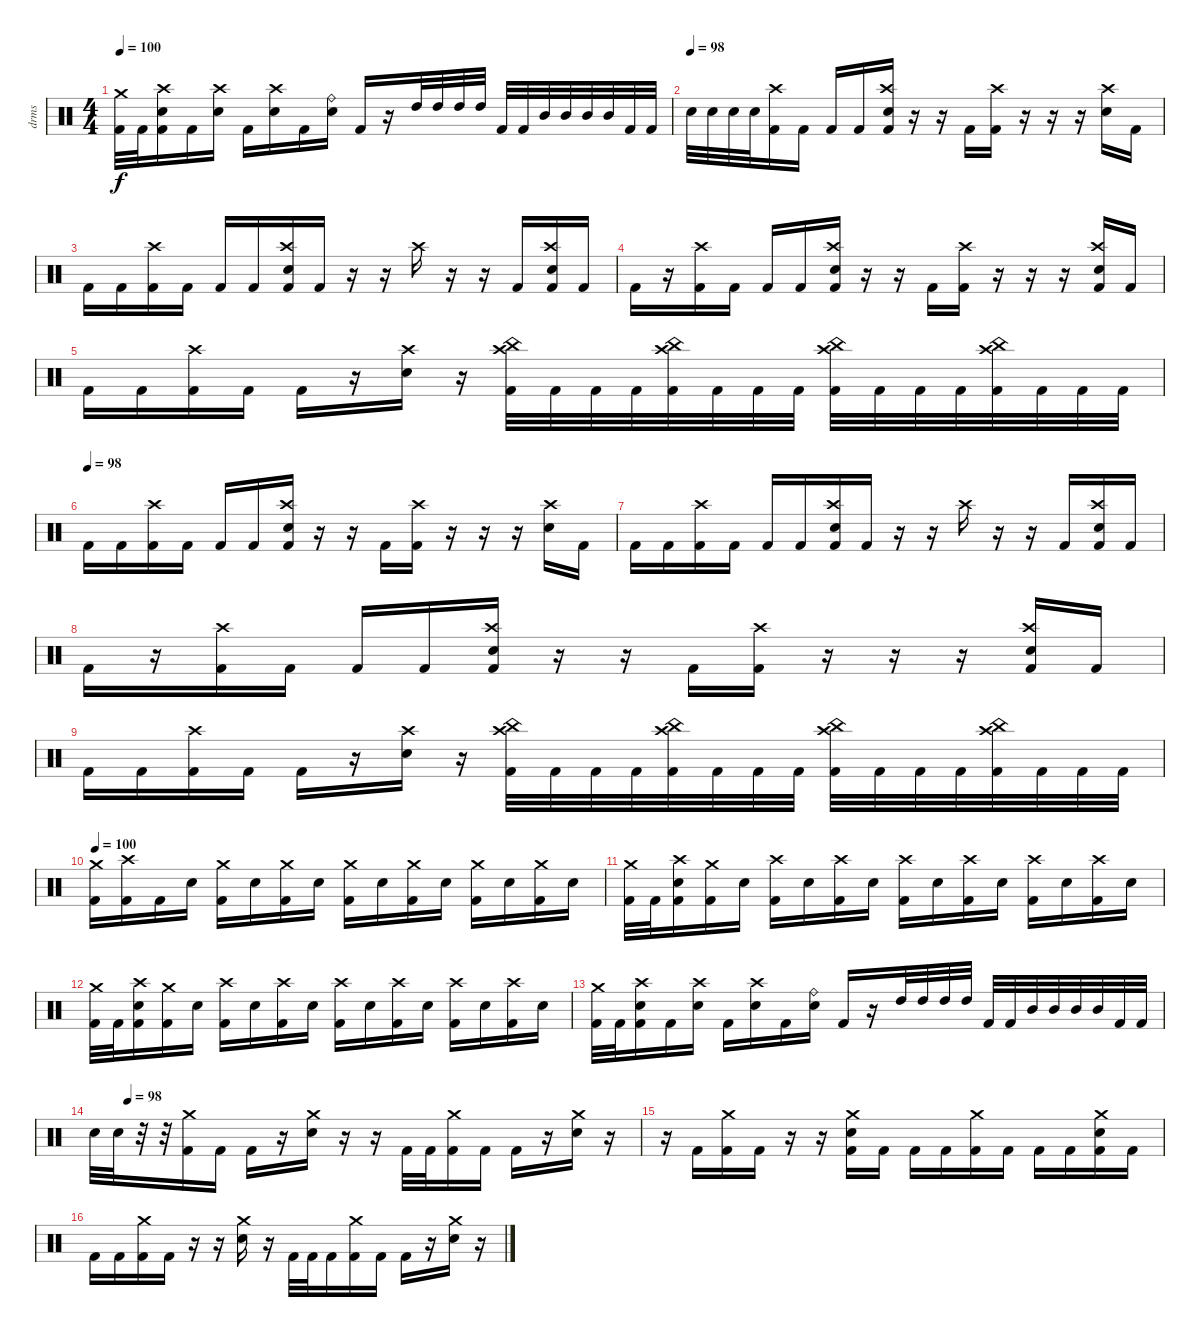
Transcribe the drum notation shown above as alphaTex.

\track ("drms" "drms") {instrument percussion}
\staff {score}
\articulation defaults
\ts (4 4)
\tempo 100
\clef neutral
\ks c
("Crash medium (hit)" "Kick (hit) 2").32{dy f} "Kick (hit) 2".32 ("Crash high (hit)" "Electric Snare (hit)" "Kick (hit) 2").16 "Kick (hit) 2".16 ("Crash high (hit)" "Electric Snare (hit)").16 "Kick (hit) 2".16 ("Crash high (hit)" "Electric Snare (hit)").16 "Kick (hit) 2".16 ("Ride (bell)" "Electric Snare (hit)").16 "Kick (hit) 2".16 r.16 "High Tom (hit)".32 "High Tom (hit)".32 "High Tom (hit)".32 "High Tom (hit)".32 "Kick (hit) 2".32 "Kick (hit) 2".32 "Mid Tom (hit)".32 "Mid Tom (hit)".32 "Mid Tom (hit)".32 "Mid Tom (hit)".32 "Kick (hit) 2".32 "Kick (hit) 2".32 |
\tempo (98)
"Electric Snare (hit)".32 "Electric Snare (hit)".32 "Electric Snare (hit)".32 "Electric Snare (hit)".32 ("Crash high (hit)" "Kick (hit) 2").16 "Kick (hit) 2".16 "Kick (hit) 2".16 "Kick (hit) 2".16 ("Crash high (hit)" "Electric Snare (hit)" "Kick (hit) 2").16 r.16 r.16 "Kick (hit) 2".16 ("Crash high (hit)" "Kick (hit) 2").16 r.16 r.16 r.16 ("Crash high (hit)" "Electric Snare (hit)").16 "Kick (hit) 2".16 |
"Kick (hit) 2".16 "Kick (hit) 2".16 ("Crash high (hit)" "Kick (hit) 2").16 "Kick (hit) 2".16 "Kick (hit) 2".16 "Kick (hit) 2".16 ("Crash high (hit)" "Electric Snare (hit)" "Kick (hit) 2").16 "Kick (hit) 2".16 r.16 r.16 "Crash high (hit)".16 r.16 r.16 "Kick (hit) 2".16 ("Crash high (hit)" "Electric Snare (hit)" "Kick (hit) 2").16 "Kick (hit) 2".16 |
"Kick (hit) 2".16 r.16 ("Crash high (hit)" "Kick (hit) 2").16 "Kick (hit) 2".16 "Kick (hit) 2".16 "Kick (hit) 2".16 ("Crash high (hit)" "Electric Snare (hit)" "Kick (hit) 2").16 r.16 r.16 "Kick (hit) 2".16 ("Crash high (hit)" "Kick (hit) 2").16 r.16 r.16 r.16 ("Crash high (hit)" "Electric Snare (hit)" "Kick (hit) 2").16 "Kick (hit) 2".16 |
"Kick (hit) 2".16 "Kick (hit) 2".16 ("Crash high (hit)" "Kick (hit) 2").16 "Kick (hit) 2".16 "Kick (hit) 2".16 r.16 ("Crash high (hit)" "Electric Snare (hit)").16 r.16 ("Crash high (hit)" "China (hit)" "Kick (hit) 2").32 "Kick (hit) 2".32 "Kick (hit) 2".32 "Kick (hit) 2".32 ("Crash high (hit)" "China (hit)" "Kick (hit) 2").32 "Kick (hit) 2".32 "Kick (hit) 2".32 "Kick (hit) 2".32 ("Crash high (hit)" "China (hit)" "Kick (hit) 2").32 "Kick (hit) 2".32 "Kick (hit) 2".32 "Kick (hit) 2".32 ("Crash high (hit)" "China (hit)" "Kick (hit) 2").32 "Kick (hit) 2".32 "Kick (hit) 2".32 "Kick (hit) 2".32 |
\tempo (98)
"Kick (hit) 2".16 "Kick (hit) 2".16 ("Crash high (hit)" "Kick (hit) 2").16 "Kick (hit) 2".16 "Kick (hit) 2".16 "Kick (hit) 2".16 ("Crash high (hit)" "Electric Snare (hit)" "Kick (hit) 2").16 r.16 r.16 "Kick (hit) 2".16 ("Crash high (hit)" "Kick (hit) 2").16 r.16 r.16 r.16 ("Crash high (hit)" "Electric Snare (hit)").16 "Kick (hit) 2".16 |
"Kick (hit) 2".16 "Kick (hit) 2".16 ("Crash high (hit)" "Kick (hit) 2").16 "Kick (hit) 2".16 "Kick (hit) 2".16 "Kick (hit) 2".16 ("Crash high (hit)" "Electric Snare (hit)" "Kick (hit) 2").16 "Kick (hit) 2".16 r.16 r.16 "Crash high (hit)".16 r.16 r.16 "Kick (hit) 2".16 ("Crash high (hit)" "Electric Snare (hit)" "Kick (hit) 2").16 "Kick (hit) 2".16 |
"Kick (hit) 2".16 r.16 ("Crash high (hit)" "Kick (hit) 2").16 "Kick (hit) 2".16 "Kick (hit) 2".16 "Kick (hit) 2".16 ("Crash high (hit)" "Electric Snare (hit)" "Kick (hit) 2").16 r.16 r.16 "Kick (hit) 2".16 ("Crash high (hit)" "Kick (hit) 2").16 r.16 r.16 r.16 ("Crash high (hit)" "Electric Snare (hit)" "Kick (hit) 2").16 "Kick (hit) 2".16 |
"Kick (hit) 2".16 "Kick (hit) 2".16 ("Crash high (hit)" "Kick (hit) 2").16 "Kick (hit) 2".16 "Kick (hit) 2".16 r.16 ("Crash high (hit)" "Electric Snare (hit)").16 r.16 ("Crash high (hit)" "China (hit)" "Kick (hit) 2").32 "Kick (hit) 2".32 "Kick (hit) 2".32 "Kick (hit) 2".32 ("Crash high (hit)" "China (hit)" "Kick (hit) 2").32 "Kick (hit) 2".32 "Kick (hit) 2".32 "Kick (hit) 2".32 ("Crash high (hit)" "China (hit)" "Kick (hit) 2").32 "Kick (hit) 2".32 "Kick (hit) 2".32 "Kick (hit) 2".32 ("Crash high (hit)" "China (hit)" "Kick (hit) 2").32 "Kick (hit) 2".32 "Kick (hit) 2".32 "Kick (hit) 2".32 |
\tempo 100
("Crash medium (hit)" "Kick (hit) 2").16 ("Crash high (hit)" "Kick (hit) 2").16 "Kick (hit) 2".16 "Electric Snare (hit)".16 ("Crash medium (hit)" "Kick (hit) 2").16 "Electric Snare (hit)".16 ("Crash medium (hit)" "Kick (hit) 2").16 "Electric Snare (hit)".16 ("Crash medium (hit)" "Kick (hit) 2").16 "Electric Snare (hit)".16 ("Crash medium (hit)" "Kick (hit) 2").16 "Electric Snare (hit)".16 ("Crash medium (hit)" "Kick (hit) 2").16 "Electric Snare (hit)".16 ("Crash medium (hit)" "Kick (hit) 2").16 "Electric Snare (hit)".16 |
("Crash medium (hit)" "Kick (hit) 2").32 "Kick (hit) 2".32 ("Crash high (hit)" "Electric Snare (hit)" "Kick (hit) 2").16 ("Crash medium (hit)" "Kick (hit) 2").16 "Electric Snare (hit)".16 ("Crash high (hit)" "Kick (hit) 2").16 "Electric Snare (hit)".16 ("Crash high (hit)" "Kick (hit) 2").16 "Electric Snare (hit)".16 ("Crash high (hit)" "Kick (hit) 2").16 "Electric Snare (hit)".16 ("Crash high (hit)" "Kick (hit) 2").16 "Electric Snare (hit)".16 ("Crash high (hit)" "Kick (hit) 2").16 "Electric Snare (hit)".16 ("Crash high (hit)" "Kick (hit) 2").16 "Electric Snare (hit)".16 |
("Crash medium (hit)" "Kick (hit) 2").32 "Kick (hit) 2".32 ("Crash high (hit)" "Electric Snare (hit)" "Kick (hit) 2").16 ("Crash medium (hit)" "Kick (hit) 2").16 "Electric Snare (hit)".16 ("Crash high (hit)" "Kick (hit) 2").16 "Electric Snare (hit)".16 ("Crash high (hit)" "Kick (hit) 2").16 "Electric Snare (hit)".16 ("Crash high (hit)" "Kick (hit) 2").16 "Electric Snare (hit)".16 ("Crash high (hit)" "Kick (hit) 2").16 "Electric Snare (hit)".16 ("Crash high (hit)" "Kick (hit) 2").16 "Electric Snare (hit)".16 ("Crash high (hit)" "Kick (hit) 2").16 "Electric Snare (hit)".16 |
("Crash medium (hit)" "Kick (hit) 2").32 "Kick (hit) 2".32 ("Crash high (hit)" "Electric Snare (hit)" "Kick (hit) 2").16 "Kick (hit) 2".16 ("Crash high (hit)" "Electric Snare (hit)").16 "Kick (hit) 2".16 ("Crash high (hit)" "Electric Snare (hit)").16 "Kick (hit) 2".16 ("Ride (bell)" "Electric Snare (hit)").16 "Kick (hit) 2".16 r.16 "High Tom (hit)".32 "High Tom (hit)".32 "High Tom (hit)".32 "High Tom (hit)".32 "Kick (hit) 2".32 "Kick (hit) 2".32 "Mid Tom (hit)".32 "Mid Tom (hit)".32 "Mid Tom (hit)".32 "Mid Tom (hit)".32 "Kick (hit) 2".32 "Kick (hit) 2".32 |
\tempo (98 0.0625)
"Electric Snare (hit)".32 "Electric Snare (hit)".32 r.32 r.32 ("Crash medium (hit)" "Kick (hit) 2").16 "Kick (hit) 2".16 "Kick (hit) 2".16 r.16 ("Crash medium (hit)" "Electric Snare (hit)").16 r.16 r.16 "Kick (hit) 2".32 "Kick (hit) 2".32 ("Crash medium (hit)" "Kick (hit) 2").16 "Kick (hit) 2".16 "Kick (hit) 2".16 r.16 ("Crash medium (hit)" "Electric Snare (hit)").16 r.16 |
r.16 "Kick (hit) 2".16 ("Crash medium (hit)" "Kick (hit) 2").16 "Kick (hit) 2".16 r.16 r.16 ("Crash medium (hit)" "Electric Snare (hit)" "Kick (hit) 2").16 "Kick (hit) 2".16 "Kick (hit) 2".16 "Kick (hit) 2".16 ("Crash medium (hit)" "Kick (hit) 2").16 "Kick (hit) 2".16 "Kick (hit) 2".16 "Kick (hit) 2".16 ("Crash medium (hit)" "Electric Snare (hit)" "Kick (hit) 2").16 "Kick (hit) 2".16 |
"Kick (hit) 2".16 "Kick (hit) 2".16 ("Crash medium (hit)" "Kick (hit) 2").16 "Kick (hit) 2".16 r.16 r.16 ("Crash medium (hit)" "Electric Snare (hit)").16 r.16 "Kick (hit) 2".32 "Kick (hit) 2".32 "Kick (hit) 2".16 ("Crash medium (hit)" "Kick (hit) 2").16 "Kick (hit) 2".16 "Kick (hit) 2".16 r.16 ("Crash medium (hit)" "Electric Snare (hit)").16 r.16
